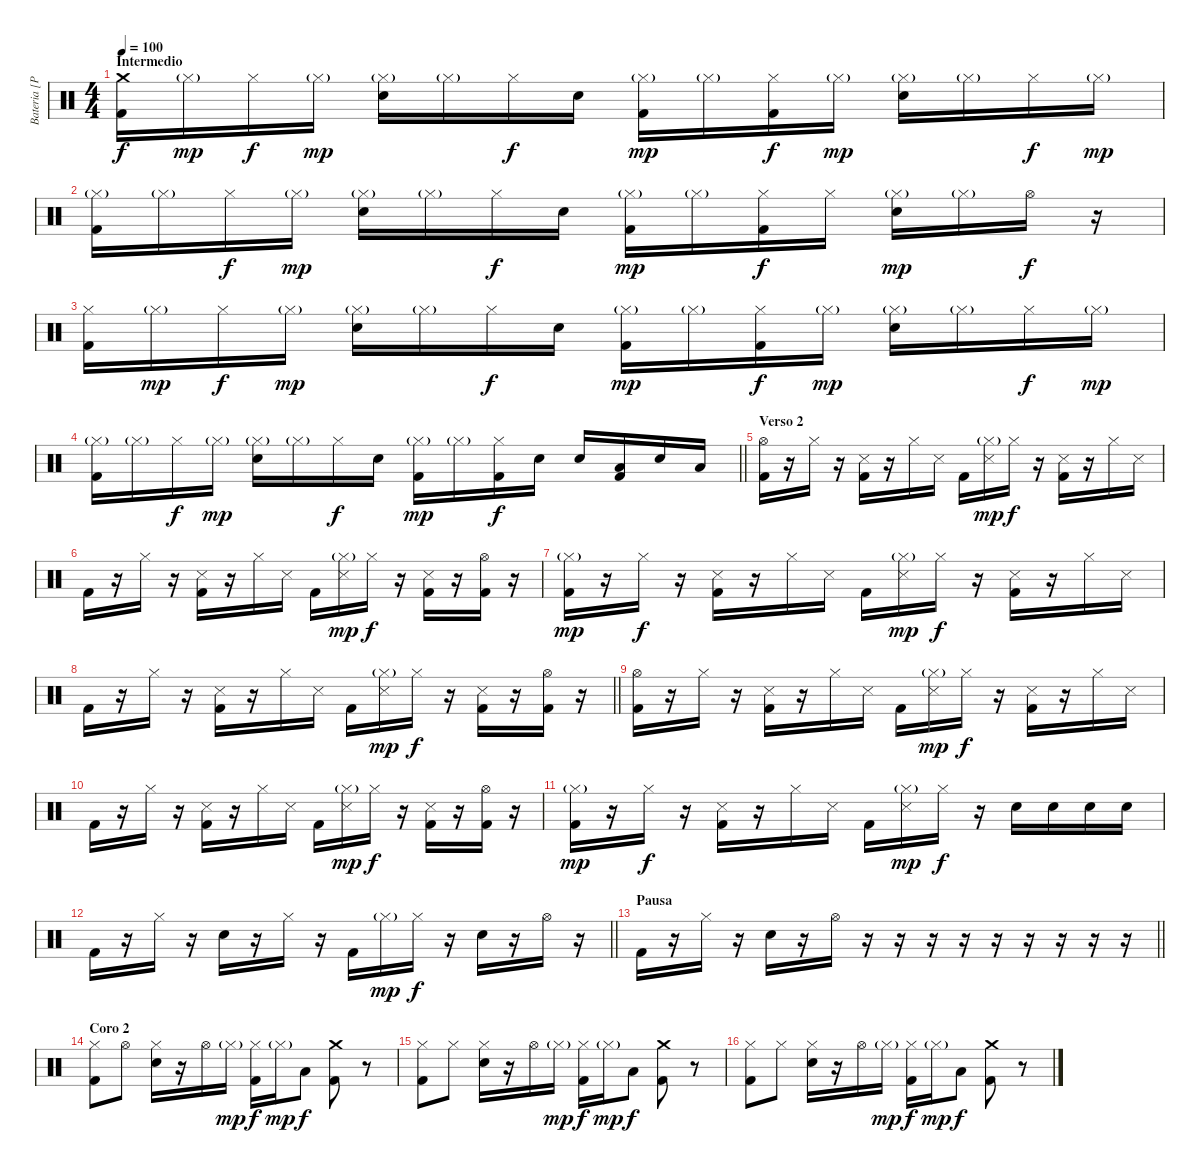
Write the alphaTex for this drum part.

\track ("Bateria [Paul]" "Bateria [P") {instrument percussion}
\staff {score}
\articulation defaults
\ts (4 4)
\section ("" "Intermedio")
\tempo 100
\clef neutral
\ks c
("Crash medium (hit)" "Kick (hit) 2").16{dy f} "Hi-Hat (closed)"{g}.16{dy mp} "Hi-Hat (closed)".16{dy f} "Hi-Hat (closed)"{g}.16{dy mp} ("Hi-Hat (closed)"{g} "Snare (hit) 2").16 "Hi-Hat (closed)"{g}.16 "Hi-Hat (closed)".16{dy f} "Snare (hit) 2".16 ("Hi-Hat (closed)"{g} "Kick (hit) 2").16{dy mp} "Hi-Hat (closed)"{g}.16 ("Hi-Hat (closed)" "Kick (hit) 2").16{dy f} "Hi-Hat (closed)"{g}.16{dy mp} ("Hi-Hat (closed)"{g} "Snare (hit) 2").16 "Hi-Hat (closed)"{g}.16 "Hi-Hat (closed)".16{dy f} "Hi-Hat (closed)"{g}.16{dy mp} |
("Hi-Hat (closed)"{g} "Kick (hit) 2").16 "Hi-Hat (closed)"{g}.16 "Hi-Hat (closed)".16{dy f} "Hi-Hat (closed)"{g}.16{dy mp} ("Hi-Hat (closed)"{g} "Snare (hit) 2").16 "Hi-Hat (closed)"{g}.16 "Hi-Hat (closed)".16{dy f} "Snare (hit) 2".16 ("Hi-Hat (closed)"{g} "Kick (hit) 2").16{dy mp} "Hi-Hat (closed)"{g}.16 ("Hi-Hat (closed)" "Kick (hit) 2").16{dy f} "Hi-Hat (closed)".16 ("Hi-Hat (closed)"{g} "Snare (hit) 2").16{dy mp} "Hi-Hat (closed)"{g}.16 "Hi-Hat (open)".16{dy f} r.16 |
("Hi-Hat (closed)" "Kick (hit) 2").16 "Hi-Hat (closed)"{g}.16{dy mp} "Hi-Hat (closed)".16{dy f} "Hi-Hat (closed)"{g}.16{dy mp} ("Hi-Hat (closed)"{g} "Snare (hit) 2").16 "Hi-Hat (closed)"{g}.16 "Hi-Hat (closed)".16{dy f} "Snare (hit) 2".16 ("Hi-Hat (closed)"{g} "Kick (hit) 2").16{dy mp} "Hi-Hat (closed)"{g}.16 ("Hi-Hat (closed)" "Kick (hit) 2").16{dy f} "Hi-Hat (closed)"{g}.16{dy mp} ("Hi-Hat (closed)"{g} "Snare (hit) 2").16 "Hi-Hat (closed)"{g}.16 "Hi-Hat (closed)".16{dy f} "Hi-Hat (closed)"{g}.16{dy mp} |
\barLineRight lightlight
("Hi-Hat (closed)"{g} "Kick (hit) 2").16 "Hi-Hat (closed)"{g}.16 "Hi-Hat (closed)".16{dy f} "Hi-Hat (closed)"{g}.16{dy mp} ("Hi-Hat (closed)"{g} "Snare (hit) 2").16 "Hi-Hat (closed)"{g}.16 "Hi-Hat (closed)".16{dy f} "Snare (hit) 2".16 ("Hi-Hat (closed)"{g} "Kick (hit) 2").16{dy mp} "Hi-Hat (closed)"{g}.16 ("Hi-Hat (closed)" "Kick (hit) 2").16{dy f} "Snare (hit) 2".16 "Snare (hit) 2".16 ("Low Tom (hit)" "Kick (hit) 2").16 "Snare (hit) 2".16 "Low Floor Tom (hit)".16 |
\section ("" "Verso 2")
("Hi-Hat (open)" "Kick (hit) 2").16 r.16 "Hi-Hat (closed)".16 r.16 ("Snare (side stick) 3" "Kick (hit) 2").16 r.16 "Hi-Hat (closed)".16 "Snare (side stick) 3".16 "Kick (hit) 2".16 ("Hi-Hat (closed)"{g} "Snare (side stick) 3").16{dy mp} "Hi-Hat (closed)".16{dy f} r.16 ("Snare (side stick) 3" "Kick (hit) 2").16 r.16 "Hi-Hat (closed)".16 "Snare (side stick) 3".16 |
"Kick (hit) 2".16 r.16 "Hi-Hat (closed)".16 r.16 ("Snare (side stick) 3" "Kick (hit) 2").16 r.16 "Hi-Hat (closed)".16 "Snare (side stick) 3".16 "Kick (hit) 2".16 ("Hi-Hat (closed)"{g} "Snare (side stick) 3").16{dy mp} "Hi-Hat (closed)".16{dy f} r.16 ("Snare (side stick) 3" "Kick (hit) 2").16 r.16 ("Hi-Hat (open)" "Kick (hit) 2").16 r.16 |
("Hi-Hat (closed)"{g} "Kick (hit) 2").16{dy mp} r.16 "Hi-Hat (closed)".16{dy f} r.16 ("Snare (side stick) 3" "Kick (hit) 2").16 r.16 "Hi-Hat (closed)".16 "Snare (side stick) 3".16 "Kick (hit) 2".16 ("Hi-Hat (closed)"{g} "Snare (side stick) 3").16{dy mp} "Hi-Hat (closed)".16{dy f} r.16 ("Snare (side stick) 3" "Kick (hit) 2").16 r.16 "Hi-Hat (closed)".16 "Snare (side stick) 3".16 |
\barLineRight lightlight "Kick (hit) 2".16
r.16 "Hi-Hat (closed)".16 r.16 ("Snare (side stick) 3" "Kick (hit) 2").16 r.16 "Hi-Hat (closed)".16 "Snare (side stick) 3".16 "Kick (hit) 2".16 ("Hi-Hat (closed)"{g} "Snare (side stick) 3").16{dy mp} "Hi-Hat (closed)".16{dy f} r.16 ("Snare (side stick) 3" "Kick (hit) 2").16 r.16 ("Hi-Hat (open)" "Kick (hit) 2").16 r.16 |
("Hi-Hat (open)" "Kick (hit) 2").16 r.16 "Hi-Hat (closed)".16 r.16 ("Snare (side stick) 3" "Kick (hit) 2").16 r.16 "Hi-Hat (closed)".16 "Snare (side stick) 3".16 "Kick (hit) 2".16 ("Hi-Hat (closed)"{g} "Snare (side stick) 3").16{dy mp} "Hi-Hat (closed)".16{dy f} r.16 ("Snare (side stick) 3" "Kick (hit) 2").16 r.16 "Hi-Hat (closed)".16 "Snare (side stick) 3".16 |
"Kick (hit) 2".16 r.16 "Hi-Hat (closed)".16 r.16 ("Snare (side stick) 3" "Kick (hit) 2").16 r.16 "Hi-Hat (closed)".16 "Snare (side stick) 3".16 "Kick (hit) 2".16 ("Hi-Hat (closed)"{g} "Snare (side stick) 3").16{dy mp} "Hi-Hat (closed)".16{dy f} r.16 ("Snare (side stick) 3" "Kick (hit) 2").16 r.16 ("Hi-Hat (open)" "Kick (hit) 2").16 r.16 |
("Hi-Hat (closed)"{g} "Kick (hit) 2").16{dy mp} r.16 "Hi-Hat (closed)".16{dy f} r.16 ("Snare (side stick) 3" "Kick (hit) 2").16 r.16 "Hi-Hat (closed)".16 "Snare (side stick) 3".16 "Kick (hit) 2".16 ("Hi-Hat (closed)"{g} "Snare (side stick) 3").16{dy mp} "Hi-Hat (closed)".16{dy f} r.16 "Snare (hit) 2".16 "Snare (hit) 2".16 "Snare (hit) 2".16 "Snare (hit) 2".16 |
\barLineRight lightlight "Kick (hit) 2".16
r.16 "Hi-Hat (closed)".16 r.16 "Snare (hit) 2".16 r.16 "Hi-Hat (closed)".16 r.16 "Kick (hit) 2".16 "Hi-Hat (closed)"{g}.16{dy mp} "Hi-Hat (closed)".16{dy f} r.16 "Snare (hit) 2".16 r.16 "Hi-Hat (open)".16 r.16 |
\section ("" "Pausa")
\barLineRight lightlight "Kick (hit) 2".16
r.16 "Hi-Hat (closed)".16 r.16 "Snare (hit) 2".16 r.16 "Hi-Hat (open)".16 r.16 r.16 r.16 r.16 r.16 r.16 r.16 r.16 r.16 |
\section ("" "Coro 2")
("Hi-Hat (closed)" "Kick (hit) 2").8 "Hi-Hat (open)".8 ("Hi-Hat (closed)" "Snare (hit) 2").16 r.16 "Hi-Hat (open)".16 "Hi-Hat (closed)"{g}.16{dy mp} ("Hi-Hat (closed)" "Kick (hit) 2").16{dy f} "Hi-Hat (closed)"{g}.16{dy mp} "Low Tom (hit)".8{dy f} ("Crash medium (hit)" "Kick (hit) 2").8 r.8 |
("Hi-Hat (closed)" "Kick (hit) 2").8 "Hi-Hat (closed)".8 ("Hi-Hat (closed)" "Snare (hit) 2").16 r.16 "Hi-Hat (open)".16 "Hi-Hat (closed)"{g}.16{dy mp} ("Hi-Hat (closed)" "Kick (hit) 2").16{dy f} "Hi-Hat (closed)"{g}.16{dy mp} "Low Tom (hit)".8{dy f} ("Crash medium (hit)" "Kick (hit) 2").8 r.8 |
("Hi-Hat (closed)" "Kick (hit) 2").8 "Hi-Hat (closed)".8 ("Hi-Hat (closed)" "Snare (hit) 2").16 r.16 "Hi-Hat (open)".16 "Hi-Hat (closed)"{g}.16{dy mp} ("Hi-Hat (closed)" "Kick (hit) 2").16{dy f} "Hi-Hat (closed)"{g}.16{dy mp} "Low Tom (hit)".8{dy f} ("Crash medium (hit)" "Kick (hit) 2").8 r.8
